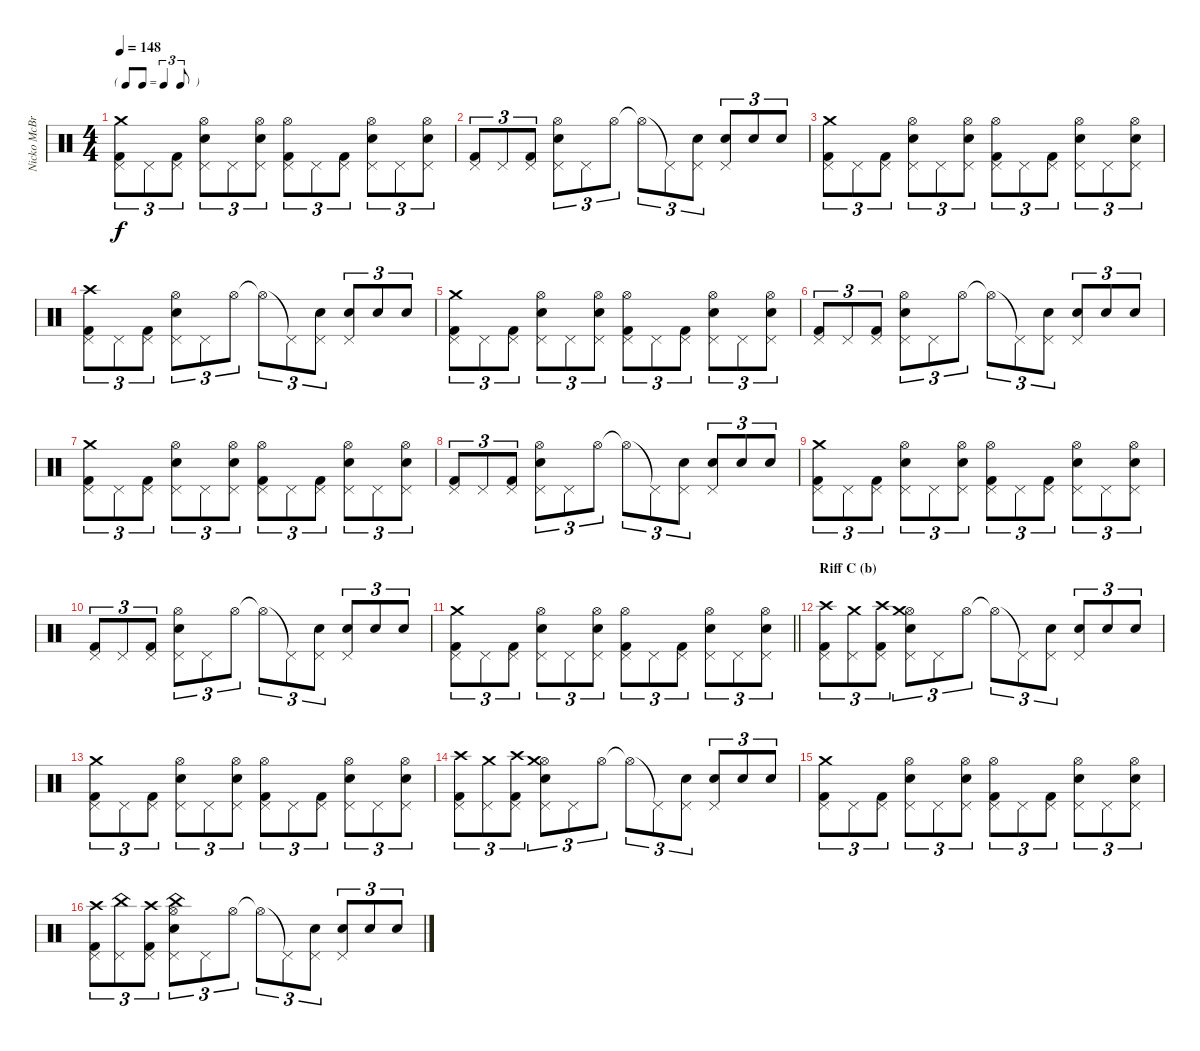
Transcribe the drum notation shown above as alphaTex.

\track ("Nicko McBrain" "Nicko McBr") {instrument percussion}
\staff {score}
\articulation defaults
\ts (4 4)
\tf triplet8th
\tempo 148
\clef neutral
\ks c
("Kick (hit) 2" "Pedal Hi-Hat (hit)" "Crash medium (hit)").8{tu (3 2) dy f} "Pedal Hi-Hat (hit)".8{tu (3 2)} ("Kick (hit) 2" "Pedal Hi-Hat (hit)").8{tu (3 2)} ("Snare (hit) 2" "Pedal Hi-Hat (hit)" "Hi-Hat (open)").8{tu (3 2)} "Pedal Hi-Hat (hit)".8{tu (3 2)} ("Snare (hit) 2" "Pedal Hi-Hat (hit)" "Hi-Hat (open)").8{tu (3 2)} ("Kick (hit) 2" "Pedal Hi-Hat (hit)" "Hi-Hat (open)").8{tu (3 2)} "Pedal Hi-Hat (hit)".8{tu (3 2)} ("Kick (hit) 2" "Pedal Hi-Hat (hit)").8{tu (3 2)} ("Snare (hit) 2" "Pedal Hi-Hat (hit)" "Hi-Hat (open)").8{tu (3 2)} "Pedal Hi-Hat (hit)".8{tu (3 2)} ("Snare (hit) 2" "Pedal Hi-Hat (hit)" "Hi-Hat (open)").8{tu (3 2)} |
("Kick (hit) 2" "Pedal Hi-Hat (hit)").8{tu (3 2)} "Pedal Hi-Hat (hit)".8{tu (3 2)} ("Kick (hit) 2" "Pedal Hi-Hat (hit)").8{tu (3 2)} ("Snare (hit) 2" "Pedal Hi-Hat (hit)" "Hi-Hat (open)").8{tu (3 2)} "Pedal Hi-Hat (hit)".8{tu (3 2)} "Hi-Hat (open)".8{tu (3 2)} "Hi-Hat (open)"{t}.8{tu (3 2)} "Pedal Hi-Hat (hit)"{t}.8{tu (3 2)} ("Snare (hit) 2" "Pedal Hi-Hat (hit)").8{tu (3 2)} ("Snare (hit) 2" "Pedal Hi-Hat (hit)").8{tu (3 2)} "Snare (hit) 2".8{tu (3 2)} "Snare (hit) 2".8{tu (3 2)} |
("Kick (hit) 2" "Pedal Hi-Hat (hit)" "Crash medium (hit)").8{tu (3 2)} "Pedal Hi-Hat (hit)".8{tu (3 2)} ("Kick (hit) 2" "Pedal Hi-Hat (hit)").8{tu (3 2)} ("Snare (hit) 2" "Pedal Hi-Hat (hit)" "Hi-Hat (open)").8{tu (3 2)} "Pedal Hi-Hat (hit)".8{tu (3 2)} ("Snare (hit) 2" "Pedal Hi-Hat (hit)" "Hi-Hat (open)").8{tu (3 2)} ("Kick (hit) 2" "Pedal Hi-Hat (hit)" "Hi-Hat (open)").8{tu (3 2)} "Pedal Hi-Hat (hit)".8{tu (3 2)} ("Kick (hit) 2" "Pedal Hi-Hat (hit)").8{tu (3 2)} ("Snare (hit) 2" "Pedal Hi-Hat (hit)" "Hi-Hat (open)").8{tu (3 2)} "Pedal Hi-Hat (hit)".8{tu (3 2)} ("Snare (hit) 2" "Pedal Hi-Hat (hit)" "Hi-Hat (open)").8{tu (3 2)} |
("Kick (hit) 2" "Pedal Hi-Hat (hit)" "Crash high (hit)").8{tu (3 2)} "Pedal Hi-Hat (hit)".8{tu (3 2)} ("Kick (hit) 2" "Pedal Hi-Hat (hit)").8{tu (3 2)} ("Snare (hit) 2" "Pedal Hi-Hat (hit)" "Hi-Hat (open)").8{tu (3 2)} "Pedal Hi-Hat (hit)".8{tu (3 2)} "Hi-Hat (open)".8{tu (3 2)} "Hi-Hat (open)"{t}.8{tu (3 2)} "Pedal Hi-Hat (hit)"{t}.8{tu (3 2)} ("Snare (hit) 2" "Pedal Hi-Hat (hit)").8{tu (3 2)} ("Snare (hit) 2" "Pedal Hi-Hat (hit)").8{tu (3 2)} "Snare (hit) 2".8{tu (3 2)} "Snare (hit) 2".8{tu (3 2)} |
("Kick (hit) 2" "Pedal Hi-Hat (hit)" "Crash medium (hit)").8{tu (3 2)} "Pedal Hi-Hat (hit)".8{tu (3 2)} ("Kick (hit) 2" "Pedal Hi-Hat (hit)").8{tu (3 2)} ("Snare (hit) 2" "Pedal Hi-Hat (hit)" "Hi-Hat (open)").8{tu (3 2)} "Pedal Hi-Hat (hit)".8{tu (3 2)} ("Snare (hit) 2" "Pedal Hi-Hat (hit)" "Hi-Hat (open)").8{tu (3 2)} ("Kick (hit) 2" "Pedal Hi-Hat (hit)" "Hi-Hat (open)").8{tu (3 2)} "Pedal Hi-Hat (hit)".8{tu (3 2)} ("Kick (hit) 2" "Pedal Hi-Hat (hit)").8{tu (3 2)} ("Snare (hit) 2" "Pedal Hi-Hat (hit)" "Hi-Hat (open)").8{tu (3 2)} "Pedal Hi-Hat (hit)".8{tu (3 2)} ("Snare (hit) 2" "Pedal Hi-Hat (hit)" "Hi-Hat (open)").8{tu (3 2)} |
("Kick (hit) 2" "Pedal Hi-Hat (hit)").8{tu (3 2)} "Pedal Hi-Hat (hit)".8{tu (3 2)} ("Kick (hit) 2" "Pedal Hi-Hat (hit)").8{tu (3 2)} ("Snare (hit) 2" "Pedal Hi-Hat (hit)" "Hi-Hat (open)").8{tu (3 2)} "Pedal Hi-Hat (hit)".8{tu (3 2)} "Hi-Hat (open)".8{tu (3 2)} "Hi-Hat (open)"{t}.8{tu (3 2)} "Pedal Hi-Hat (hit)"{t}.8{tu (3 2)} ("Snare (hit) 2" "Pedal Hi-Hat (hit)").8{tu (3 2)} ("Snare (hit) 2" "Pedal Hi-Hat (hit)").8{tu (3 2)} "Snare (hit) 2".8{tu (3 2)} "Snare (hit) 2".8{tu (3 2)} |
("Kick (hit) 2" "Pedal Hi-Hat (hit)" "Crash medium (hit)").8{tu (3 2)} "Pedal Hi-Hat (hit)".8{tu (3 2)} ("Kick (hit) 2" "Pedal Hi-Hat (hit)").8{tu (3 2)} ("Snare (hit) 2" "Pedal Hi-Hat (hit)" "Hi-Hat (open)").8{tu (3 2)} "Pedal Hi-Hat (hit)".8{tu (3 2)} ("Snare (hit) 2" "Pedal Hi-Hat (hit)" "Hi-Hat (open)").8{tu (3 2)} ("Kick (hit) 2" "Pedal Hi-Hat (hit)" "Hi-Hat (open)").8{tu (3 2)} "Pedal Hi-Hat (hit)".8{tu (3 2)} ("Kick (hit) 2" "Pedal Hi-Hat (hit)").8{tu (3 2)} ("Snare (hit) 2" "Pedal Hi-Hat (hit)" "Hi-Hat (open)").8{tu (3 2)} "Pedal Hi-Hat (hit)".8{tu (3 2)} ("Snare (hit) 2" "Pedal Hi-Hat (hit)" "Hi-Hat (open)").8{tu (3 2)} |
("Kick (hit) 2" "Pedal Hi-Hat (hit)").8{tu (3 2)} "Pedal Hi-Hat (hit)".8{tu (3 2)} ("Kick (hit) 2" "Pedal Hi-Hat (hit)").8{tu (3 2)} ("Snare (hit) 2" "Pedal Hi-Hat (hit)" "Hi-Hat (open)").8{tu (3 2)} "Pedal Hi-Hat (hit)".8{tu (3 2)} "Hi-Hat (open)".8{tu (3 2)} "Hi-Hat (open)"{t}.8{tu (3 2)} "Pedal Hi-Hat (hit)"{t}.8{tu (3 2)} ("Snare (hit) 2" "Pedal Hi-Hat (hit)").8{tu (3 2)} ("Snare (hit) 2" "Pedal Hi-Hat (hit)").8{tu (3 2)} "Snare (hit) 2".8{tu (3 2)} "Snare (hit) 2".8{tu (3 2)} |
("Kick (hit) 2" "Pedal Hi-Hat (hit)" "Crash medium (hit)").8{tu (3 2)} "Pedal Hi-Hat (hit)".8{tu (3 2)} ("Kick (hit) 2" "Pedal Hi-Hat (hit)").8{tu (3 2)} ("Snare (hit) 2" "Pedal Hi-Hat (hit)" "Hi-Hat (open)").8{tu (3 2)} "Pedal Hi-Hat (hit)".8{tu (3 2)} ("Snare (hit) 2" "Pedal Hi-Hat (hit)" "Hi-Hat (open)").8{tu (3 2)} ("Kick (hit) 2" "Pedal Hi-Hat (hit)" "Hi-Hat (open)").8{tu (3 2)} "Pedal Hi-Hat (hit)".8{tu (3 2)} ("Kick (hit) 2" "Pedal Hi-Hat (hit)").8{tu (3 2)} ("Snare (hit) 2" "Pedal Hi-Hat (hit)" "Hi-Hat (open)").8{tu (3 2)} "Pedal Hi-Hat (hit)".8{tu (3 2)} ("Snare (hit) 2" "Pedal Hi-Hat (hit)" "Hi-Hat (open)").8{tu (3 2)} |
("Kick (hit) 2" "Pedal Hi-Hat (hit)").8{tu (3 2)} "Pedal Hi-Hat (hit)".8{tu (3 2)} ("Kick (hit) 2" "Pedal Hi-Hat (hit)").8{tu (3 2)} ("Snare (hit) 2" "Pedal Hi-Hat (hit)" "Hi-Hat (open)").8{tu (3 2)} "Pedal Hi-Hat (hit)".8{tu (3 2)} "Hi-Hat (open)".8{tu (3 2)} "Hi-Hat (open)"{t}.8{tu (3 2)} "Pedal Hi-Hat (hit)"{t}.8{tu (3 2)} ("Snare (hit) 2" "Pedal Hi-Hat (hit)").8{tu (3 2)} ("Snare (hit) 2" "Pedal Hi-Hat (hit)").8{tu (3 2)} "Snare (hit) 2".8{tu (3 2)} "Snare (hit) 2".8{tu (3 2)} |
\barLineRight lightlight
("Kick (hit) 2" "Pedal Hi-Hat (hit)" "Crash medium (hit)").8{tu (3 2)} "Pedal Hi-Hat (hit)".8{tu (3 2)} ("Kick (hit) 2" "Pedal Hi-Hat (hit)").8{tu (3 2)} ("Snare (hit) 2" "Pedal Hi-Hat (hit)" "Hi-Hat (open)").8{tu (3 2)} "Pedal Hi-Hat (hit)".8{tu (3 2)} ("Snare (hit) 2" "Pedal Hi-Hat (hit)" "Hi-Hat (open)").8{tu (3 2)} ("Kick (hit) 2" "Pedal Hi-Hat (hit)" "Hi-Hat (open)").8{tu (3 2)} "Pedal Hi-Hat (hit)".8{tu (3 2)} ("Kick (hit) 2" "Pedal Hi-Hat (hit)").8{tu (3 2)} ("Snare (hit) 2" "Pedal Hi-Hat (hit)" "Hi-Hat (open)").8{tu (3 2)} "Pedal Hi-Hat (hit)".8{tu (3 2)} ("Snare (hit) 2" "Pedal Hi-Hat (hit)" "Hi-Hat (open)").8{tu (3 2)} |
\section ("" "Riff C (b)")
("Kick (hit) 2" "Pedal Hi-Hat (hit)" "Crash high (hit)").8{tu (3 2)} ("Pedal Hi-Hat (hit)" "Crash medium (hit)").8{tu (3 2)} ("Kick (hit) 2" "Pedal Hi-Hat (hit)" "Crash high (hit)").8{tu (3 2)} ("Snare (hit) 2" "Pedal Hi-Hat (hit)" "Hi-Hat (open)" "Crash medium (hit)").8{tu (3 2)} "Pedal Hi-Hat (hit)".8{tu (3 2)} "Hi-Hat (open)".8{tu (3 2)} "Hi-Hat (open)"{t}.8{tu (3 2)} "Pedal Hi-Hat (hit)"{t}.8{tu (3 2)} ("Snare (hit) 2" "Pedal Hi-Hat (hit)").8{tu (3 2)} ("Snare (hit) 2" "Pedal Hi-Hat (hit)").8{tu (3 2)} "Snare (hit) 2".8{tu (3 2)} "Snare (hit) 2".8{tu (3 2)} |
("Kick (hit) 2" "Pedal Hi-Hat (hit)" "Crash medium (hit)").8{tu (3 2)} "Pedal Hi-Hat (hit)".8{tu (3 2)} ("Kick (hit) 2" "Pedal Hi-Hat (hit)").8{tu (3 2)} ("Snare (hit) 2" "Pedal Hi-Hat (hit)" "Hi-Hat (open)").8{tu (3 2)} "Pedal Hi-Hat (hit)".8{tu (3 2)} ("Snare (hit) 2" "Pedal Hi-Hat (hit)" "Hi-Hat (open)").8{tu (3 2)} ("Kick (hit) 2" "Pedal Hi-Hat (hit)" "Hi-Hat (open)").8{tu (3 2)} "Pedal Hi-Hat (hit)".8{tu (3 2)} ("Kick (hit) 2" "Pedal Hi-Hat (hit)").8{tu (3 2)} ("Snare (hit) 2" "Pedal Hi-Hat (hit)" "Hi-Hat (open)").8{tu (3 2)} "Pedal Hi-Hat (hit)".8{tu (3 2)} ("Snare (hit) 2" "Pedal Hi-Hat (hit)" "Hi-Hat (open)").8{tu (3 2)} |
("Kick (hit) 2" "Pedal Hi-Hat (hit)" "Crash high (hit)").8{tu (3 2)} ("Pedal Hi-Hat (hit)" "Crash medium (hit)").8{tu (3 2)} ("Kick (hit) 2" "Pedal Hi-Hat (hit)" "Crash high (hit)").8{tu (3 2)} ("Snare (hit) 2" "Pedal Hi-Hat (hit)" "Hi-Hat (open)" "Crash medium (hit)").8{tu (3 2)} "Pedal Hi-Hat (hit)".8{tu (3 2)} "Hi-Hat (open)".8{tu (3 2)} "Hi-Hat (open)"{t}.8{tu (3 2)} "Pedal Hi-Hat (hit)"{t}.8{tu (3 2)} ("Snare (hit) 2" "Pedal Hi-Hat (hit)").8{tu (3 2)} ("Snare (hit) 2" "Pedal Hi-Hat (hit)").8{tu (3 2)} "Snare (hit) 2".8{tu (3 2)} "Snare (hit) 2".8{tu (3 2)} |
("Kick (hit) 2" "Pedal Hi-Hat (hit)" "Crash medium (hit)").8{tu (3 2)} "Pedal Hi-Hat (hit)".8{tu (3 2)} ("Kick (hit) 2" "Pedal Hi-Hat (hit)").8{tu (3 2)} ("Snare (hit) 2" "Pedal Hi-Hat (hit)" "Hi-Hat (open)").8{tu (3 2)} "Pedal Hi-Hat (hit)".8{tu (3 2)} ("Snare (hit) 2" "Pedal Hi-Hat (hit)" "Hi-Hat (open)").8{tu (3 2)} ("Kick (hit) 2" "Pedal Hi-Hat (hit)" "Hi-Hat (open)").8{tu (3 2)} "Pedal Hi-Hat (hit)".8{tu (3 2)} ("Kick (hit) 2" "Pedal Hi-Hat (hit)").8{tu (3 2)} ("Snare (hit) 2" "Pedal Hi-Hat (hit)" "Hi-Hat (open)").8{tu (3 2)} "Pedal Hi-Hat (hit)".8{tu (3 2)} ("Snare (hit) 2" "Pedal Hi-Hat (hit)" "Hi-Hat (open)").8{tu (3 2)} |
("Kick (hit) 2" "Pedal Hi-Hat (hit)" "Crash high (hit)").8{tu (3 2)} ("Pedal Hi-Hat (hit)" "China (hit)").8{tu (3 2)} ("Kick (hit) 2" "Pedal Hi-Hat (hit)" "Crash high (hit)").8{tu (3 2)} ("Snare (hit) 2" "Pedal Hi-Hat (hit)" "Hi-Hat (open)" "China (hit)").8{tu (3 2)} "Pedal Hi-Hat (hit)".8{tu (3 2)} "Hi-Hat (open)".8{tu (3 2)} "Hi-Hat (open)"{t}.8{tu (3 2)} "Pedal Hi-Hat (hit)"{t}.8{tu (3 2)} ("Snare (hit) 2" "Pedal Hi-Hat (hit)").8{tu (3 2)} ("Snare (hit) 2" "Pedal Hi-Hat (hit)").8{tu (3 2)} "Snare (hit) 2".8{tu (3 2)} "Snare (hit) 2".8{tu (3 2)}
